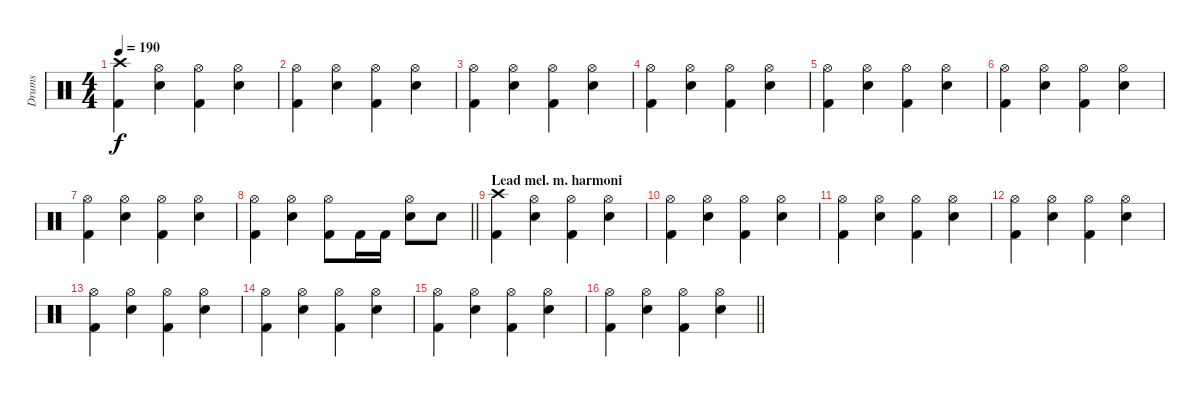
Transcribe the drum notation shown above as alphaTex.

\track ("Drums" "Drums") {instrument percussion}
\staff {score}
\articulation defaults
\ts (4 4)
\tempo 190
\clef neutral
\ks c
("Crash high (hit)" "Kick (hit) 2").4{dy f} ("Hi-Hat (open)" "Snare (hit) 2").4 ("Hi-Hat (open)" "Kick (hit) 2").4 ("Hi-Hat (open)" "Snare (hit) 2").4 |
("Hi-Hat (open)" "Kick (hit) 2").4 ("Hi-Hat (open)" "Snare (hit) 2").4 ("Hi-Hat (open)" "Kick (hit) 2").4 ("Hi-Hat (open)" "Snare (hit) 2").4 |
("Hi-Hat (open)" "Kick (hit) 2").4 ("Hi-Hat (open)" "Snare (hit) 2").4 ("Hi-Hat (open)" "Kick (hit) 2").4 ("Hi-Hat (open)" "Snare (hit) 2").4 |
("Hi-Hat (open)" "Kick (hit) 2").4 ("Hi-Hat (open)" "Snare (hit) 2").4 ("Hi-Hat (open)" "Kick (hit) 2").4 ("Hi-Hat (open)" "Snare (hit) 2").4 |
("Hi-Hat (open)" "Kick (hit) 2").4 ("Hi-Hat (open)" "Snare (hit) 2").4 ("Hi-Hat (open)" "Kick (hit) 2").4 ("Hi-Hat (open)" "Snare (hit) 2").4 |
("Hi-Hat (open)" "Kick (hit) 2").4 ("Hi-Hat (open)" "Snare (hit) 2").4 ("Hi-Hat (open)" "Kick (hit) 2").4 ("Hi-Hat (open)" "Snare (hit) 2").4 |
("Hi-Hat (open)" "Kick (hit) 2").4 ("Hi-Hat (open)" "Snare (hit) 2").4 ("Hi-Hat (open)" "Kick (hit) 2").4 ("Hi-Hat (open)" "Snare (hit) 2").4 |
\barLineRight lightlight
("Hi-Hat (open)" "Kick (hit) 2").4 ("Hi-Hat (open)" "Snare (hit) 2").4 ("Hi-Hat (open)" "Kick (hit) 2").8 "Kick (hit) 2".16 "Kick (hit) 2".16 ("Hi-Hat (open)" "Snare (hit) 2").8 "Snare (hit) 2".8 |
\section ("" "Lead mel. m. harmoni")
("Crash high (hit)" "Kick (hit) 2").4 ("Hi-Hat (open)" "Snare (hit) 2").4 ("Hi-Hat (open)" "Kick (hit) 2").4 ("Hi-Hat (open)" "Snare (hit) 2").4 |
("Hi-Hat (open)" "Kick (hit) 2").4 ("Hi-Hat (open)" "Snare (hit) 2").4 ("Hi-Hat (open)" "Kick (hit) 2").4 ("Hi-Hat (open)" "Snare (hit) 2").4 |
("Hi-Hat (open)" "Kick (hit) 2").4 ("Hi-Hat (open)" "Snare (hit) 2").4 ("Hi-Hat (open)" "Kick (hit) 2").4 ("Hi-Hat (open)" "Snare (hit) 2").4 |
("Hi-Hat (open)" "Kick (hit) 2").4 ("Hi-Hat (open)" "Snare (hit) 2").4 ("Hi-Hat (open)" "Kick (hit) 2").4 ("Hi-Hat (open)" "Snare (hit) 2").4 |
("Hi-Hat (open)" "Kick (hit) 2").4 ("Hi-Hat (open)" "Snare (hit) 2").4 ("Hi-Hat (open)" "Kick (hit) 2").4 ("Hi-Hat (open)" "Snare (hit) 2").4 |
("Hi-Hat (open)" "Kick (hit) 2").4 ("Hi-Hat (open)" "Snare (hit) 2").4 ("Hi-Hat (open)" "Kick (hit) 2").4 ("Hi-Hat (open)" "Snare (hit) 2").4 |
("Hi-Hat (open)" "Kick (hit) 2").4 ("Hi-Hat (open)" "Snare (hit) 2").4 ("Hi-Hat (open)" "Kick (hit) 2").4 ("Hi-Hat (open)" "Snare (hit) 2").4 |
\barLineRight lightlight
("Hi-Hat (open)" "Kick (hit) 2").4 ("Hi-Hat (open)" "Snare (hit) 2").4 ("Hi-Hat (open)" "Kick (hit) 2").4 ("Hi-Hat (open)" "Snare (hit) 2").4
